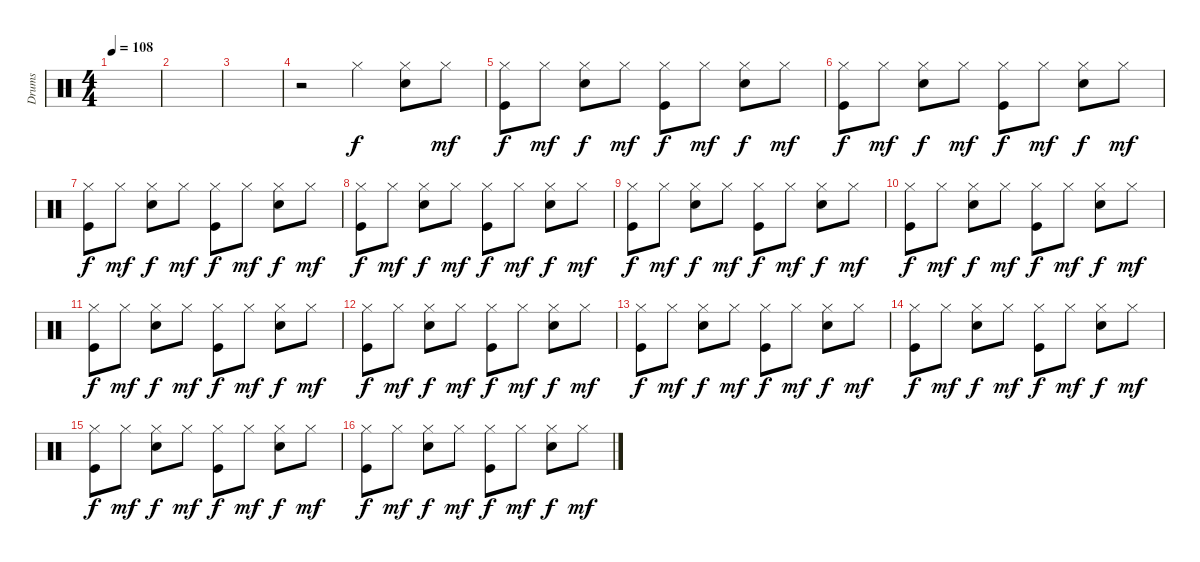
\track ("Drums" "Drums") {instrument percussion}
\staff {score}
\articulation defaults
\ts (4 4)
\tempo 108
\clef neutral
\ks c
|
|
|
r.2{volume 9} "Hi-Hat (closed)".4 ("Hi-Hat (closed)" "Electric Snare (hit)").8{dy f} "Hi-Hat (closed)".8{dy mf} |
("Hi-Hat (closed)" "Kick (hit)").8{dy f} "Hi-Hat (closed)".8{dy mf} ("Hi-Hat (closed)" "Electric Snare (hit)").8{dy f} "Hi-Hat (closed)".8{dy mf} ("Hi-Hat (closed)" "Kick (hit)").8{dy f} "Hi-Hat (closed)".8{dy mf} ("Hi-Hat (closed)" "Electric Snare (hit)").8{dy f} "Hi-Hat (closed)".8{dy mf} |
("Hi-Hat (closed)" "Kick (hit)").8{dy f volume 13} "Hi-Hat (closed)".8{dy mf} ("Hi-Hat (closed)" "Electric Snare (hit)").8{dy f} "Hi-Hat (closed)".8{dy mf} ("Hi-Hat (closed)" "Kick (hit)").8{dy f} "Hi-Hat (closed)".8{dy mf} ("Hi-Hat (closed)" "Electric Snare (hit)").8{dy f} "Hi-Hat (closed)".8{dy mf} |
("Hi-Hat (closed)" "Kick (hit)").8{dy f} "Hi-Hat (closed)".8{dy mf} ("Hi-Hat (closed)" "Electric Snare (hit)").8{dy f} "Hi-Hat (closed)".8{dy mf} ("Hi-Hat (closed)" "Kick (hit)").8{dy f} "Hi-Hat (closed)".8{dy mf} ("Hi-Hat (closed)" "Electric Snare (hit)").8{dy f} "Hi-Hat (closed)".8{dy mf} |
("Hi-Hat (closed)" "Kick (hit)").8{dy f} "Hi-Hat (closed)".8{dy mf} ("Hi-Hat (closed)" "Electric Snare (hit)").8{dy f} "Hi-Hat (closed)".8{dy mf} ("Hi-Hat (closed)" "Kick (hit)").8{dy f} "Hi-Hat (closed)".8{dy mf} ("Hi-Hat (closed)" "Electric Snare (hit)").8{dy f} "Hi-Hat (closed)".8{dy mf} |
("Hi-Hat (closed)" "Kick (hit)").8{dy f} "Hi-Hat (closed)".8{dy mf} ("Hi-Hat (closed)" "Electric Snare (hit)").8{dy f} "Hi-Hat (closed)".8{dy mf} ("Hi-Hat (closed)" "Kick (hit)").8{dy f} "Hi-Hat (closed)".8{dy mf} ("Hi-Hat (closed)" "Electric Snare (hit)").8{dy f} "Hi-Hat (closed)".8{dy mf} |
("Hi-Hat (closed)" "Kick (hit)").8{dy f} "Hi-Hat (closed)".8{dy mf} ("Hi-Hat (closed)" "Electric Snare (hit)").8{dy f} "Hi-Hat (closed)".8{dy mf} ("Hi-Hat (closed)" "Kick (hit)").8{dy f} "Hi-Hat (closed)".8{dy mf} ("Hi-Hat (closed)" "Electric Snare (hit)").8{dy f} "Hi-Hat (closed)".8{dy mf} |
("Hi-Hat (closed)" "Kick (hit)").8{dy f} "Hi-Hat (closed)".8{dy mf} ("Hi-Hat (closed)" "Electric Snare (hit)").8{dy f} "Hi-Hat (closed)".8{dy mf} ("Hi-Hat (closed)" "Kick (hit)").8{dy f} "Hi-Hat (closed)".8{dy mf} ("Hi-Hat (closed)" "Electric Snare (hit)").8{dy f} "Hi-Hat (closed)".8{dy mf} |
("Hi-Hat (closed)" "Kick (hit)").8{dy f} "Hi-Hat (closed)".8{dy mf} ("Hi-Hat (closed)" "Electric Snare (hit)").8{dy f} "Hi-Hat (closed)".8{dy mf} ("Hi-Hat (closed)" "Kick (hit)").8{dy f} "Hi-Hat (closed)".8{dy mf} ("Hi-Hat (closed)" "Electric Snare (hit)").8{dy f} "Hi-Hat (closed)".8{dy mf} |
("Hi-Hat (closed)" "Kick (hit)").8{dy f} "Hi-Hat (closed)".8{dy mf} ("Hi-Hat (closed)" "Electric Snare (hit)").8{dy f} "Hi-Hat (closed)".8{dy mf} ("Hi-Hat (closed)" "Kick (hit)").8{dy f} "Hi-Hat (closed)".8{dy mf} ("Hi-Hat (closed)" "Electric Snare (hit)").8{dy f} "Hi-Hat (closed)".8{dy mf} |
("Hi-Hat (closed)" "Kick (hit)").8{dy f} "Hi-Hat (closed)".8{dy mf} ("Hi-Hat (closed)" "Electric Snare (hit)").8{dy f} "Hi-Hat (closed)".8{dy mf} ("Hi-Hat (closed)" "Kick (hit)").8{dy f} "Hi-Hat (closed)".8{dy mf} ("Hi-Hat (closed)" "Electric Snare (hit)").8{dy f} "Hi-Hat (closed)".8{dy mf} |
("Hi-Hat (closed)" "Kick (hit)").8{dy f} "Hi-Hat (closed)".8{dy mf} ("Hi-Hat (closed)" "Electric Snare (hit)").8{dy f} "Hi-Hat (closed)".8{dy mf} ("Hi-Hat (closed)" "Kick (hit)").8{dy f} "Hi-Hat (closed)".8{dy mf} ("Hi-Hat (closed)" "Electric Snare (hit)").8{dy f} "Hi-Hat (closed)".8{dy mf} |
("Hi-Hat (closed)" "Kick (hit)").8{dy f} "Hi-Hat (closed)".8{dy mf} ("Hi-Hat (closed)" "Electric Snare (hit)").8{dy f} "Hi-Hat (closed)".8{dy mf} ("Hi-Hat (closed)" "Kick (hit)").8{dy f} "Hi-Hat (closed)".8{dy mf} ("Hi-Hat (closed)" "Electric Snare (hit)").8{dy f} "Hi-Hat (closed)".8{dy mf}
